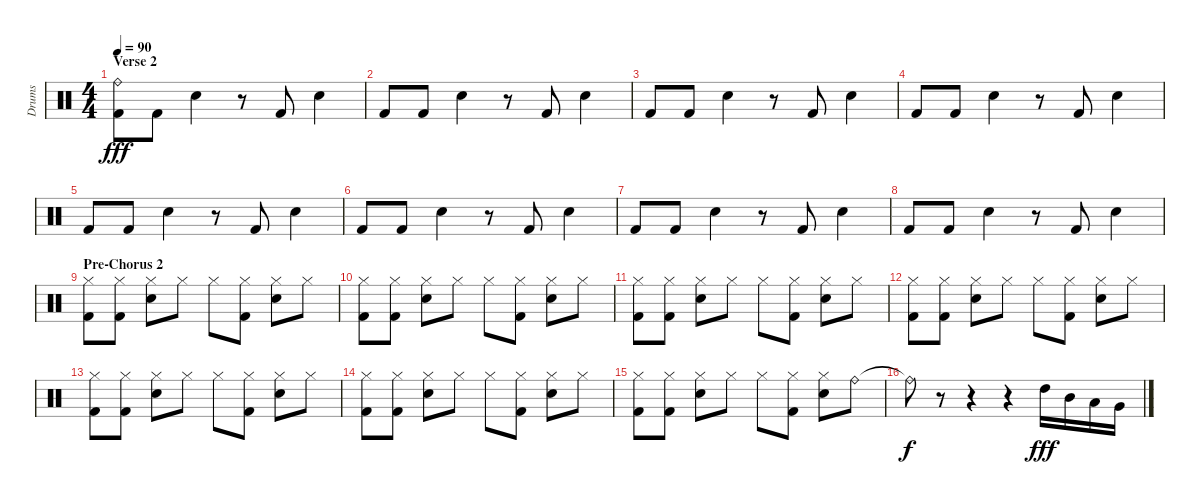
\track ("Drums" "Drums") {instrument percussion}
\staff {score}
\articulation defaults
\ts (4 4)
\section ("" "Verse 2")
\tempo 90
\clef neutral
\ks c
("Ride (bell)" "Kick (hit) 2").8{dy fff} "Kick (hit) 2".8 "Electric Snare (hit)".4 r.8 "Kick (hit) 2".8 "Electric Snare (hit)".4 |
"Kick (hit) 2".8 "Kick (hit) 2".8 "Electric Snare (hit)".4 r.8 "Kick (hit) 2".8 "Electric Snare (hit)".4 |
"Kick (hit) 2".8 "Kick (hit) 2".8 "Electric Snare (hit)".4 r.8 "Kick (hit) 2".8 "Electric Snare (hit)".4 |
"Kick (hit) 2".8 "Kick (hit) 2".8 "Electric Snare (hit)".4 r.8 "Kick (hit) 2".8 "Electric Snare (hit)".4 |
"Kick (hit) 2".8 "Kick (hit) 2".8 "Electric Snare (hit)".4 r.8 "Kick (hit) 2".8 "Electric Snare (hit)".4 |
"Kick (hit) 2".8 "Kick (hit) 2".8 "Electric Snare (hit)".4 r.8 "Kick (hit) 2".8 "Electric Snare (hit)".4 |
"Kick (hit) 2".8 "Kick (hit) 2".8 "Electric Snare (hit)".4 r.8 "Kick (hit) 2".8 "Electric Snare (hit)".4 |
"Kick (hit) 2".8 "Kick (hit) 2".8 "Electric Snare (hit)".4 r.8 "Kick (hit) 2".8 "Electric Snare (hit)".4 |
\section ("" "Pre-Chorus 2")
("Hi-Hat (closed)" "Kick (hit) 2").8 ("Hi-Hat (closed)" "Kick (hit) 2").8 ("Hi-Hat (closed)" "Electric Snare (hit)").8 "Hi-Hat (closed)".8 "Hi-Hat (closed)".8 ("Hi-Hat (closed)" "Kick (hit) 2").8 ("Hi-Hat (closed)" "Electric Snare (hit)").8 "Hi-Hat (closed)".8 |
("Hi-Hat (closed)" "Kick (hit) 2").8 ("Hi-Hat (closed)" "Kick (hit) 2").8 ("Hi-Hat (closed)" "Electric Snare (hit)").8 "Hi-Hat (closed)".8 "Hi-Hat (closed)".8 ("Hi-Hat (closed)" "Kick (hit) 2").8 ("Hi-Hat (closed)" "Electric Snare (hit)").8 "Hi-Hat (closed)".8 |
("Hi-Hat (closed)" "Kick (hit) 2").8 ("Hi-Hat (closed)" "Kick (hit) 2").8 ("Hi-Hat (closed)" "Electric Snare (hit)").8 "Hi-Hat (closed)".8 "Hi-Hat (closed)".8 ("Hi-Hat (closed)" "Kick (hit) 2").8 ("Hi-Hat (closed)" "Electric Snare (hit)").8 "Hi-Hat (closed)".8 |
("Hi-Hat (closed)" "Kick (hit) 2").8 ("Hi-Hat (closed)" "Kick (hit) 2").8 ("Hi-Hat (closed)" "Electric Snare (hit)").8 "Hi-Hat (closed)".8 "Hi-Hat (closed)".8 ("Hi-Hat (closed)" "Kick (hit) 2").8 ("Hi-Hat (closed)" "Electric Snare (hit)").8 "Hi-Hat (closed)".8 |
("Hi-Hat (closed)" "Kick (hit) 2").8 ("Hi-Hat (closed)" "Kick (hit) 2").8 ("Hi-Hat (closed)" "Electric Snare (hit)").8 "Hi-Hat (closed)".8 "Hi-Hat (closed)".8 ("Hi-Hat (closed)" "Kick (hit) 2").8 ("Hi-Hat (closed)" "Electric Snare (hit)").8 "Hi-Hat (closed)".8 |
("Hi-Hat (closed)" "Kick (hit) 2").8 ("Hi-Hat (closed)" "Kick (hit) 2").8 ("Hi-Hat (closed)" "Electric Snare (hit)").8 "Hi-Hat (closed)".8 "Hi-Hat (closed)".8 ("Hi-Hat (closed)" "Kick (hit) 2").8 ("Hi-Hat (closed)" "Electric Snare (hit)").8 "Hi-Hat (closed)".8 |
("Hi-Hat (closed)" "Kick (hit) 2").8 ("Hi-Hat (closed)" "Kick (hit) 2").8 ("Hi-Hat (closed)" "Electric Snare (hit)").8 "Hi-Hat (closed)".8 "Hi-Hat (closed)".8 ("Hi-Hat (closed)" "Kick (hit) 2").8 ("Hi-Hat (closed)" "Electric Snare (hit)").8 "Ride (bell)".8 |
"Ride (bell)"{t}.8{dy f} r.8 r.4 r.4 "High Tom (hit)".16{dy fff} "Mid Tom (hit)".16 "Low Tom (hit)".16 "Very Low Tom (hit)".16
